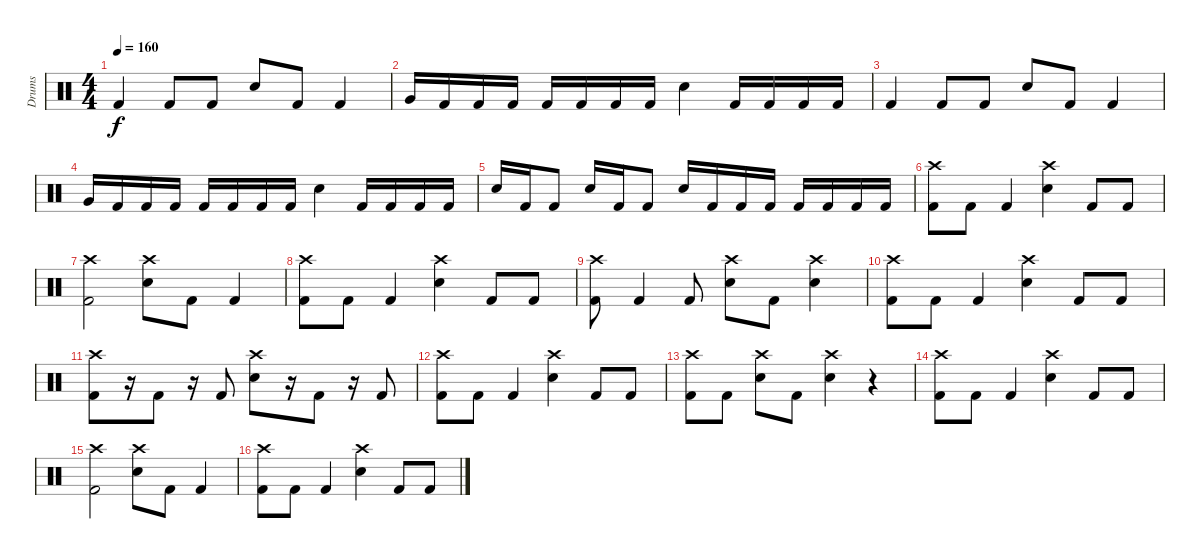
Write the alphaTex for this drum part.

\track ("Drums" "Drums") {instrument percussion}
\staff {score}
\articulation defaults
\ts (4 4)
\tempo 160
\clef neutral
\ks c "Kick (hit) 2".4{dy f} "Kick (hit) 2".8 "Kick (hit) 2".8 "Snare (hit) 2".8 "Kick (hit) 2".8 "Kick (hit) 2".4
|
"Very Low Tom (hit)".16 "Kick (hit) 2".16 "Kick (hit) 2".16 "Kick (hit) 2".16 "Kick (hit) 2".16 "Kick (hit) 2".16 "Kick (hit) 2".16 "Kick (hit) 2".16 "Snare (hit) 2".4 "Kick (hit) 2".16 "Kick (hit) 2".16 "Kick (hit) 2".16 "Kick (hit) 2".16 |
"Kick (hit) 2".4 "Kick (hit) 2".8 "Kick (hit) 2".8 "Snare (hit) 2".8 "Kick (hit) 2".8 "Kick (hit) 2".4 |
"Very Low Tom (hit)".16 "Kick (hit) 2".16 "Kick (hit) 2".16 "Kick (hit) 2".16 "Kick (hit) 2".16 "Kick (hit) 2".16 "Kick (hit) 2".16 "Kick (hit) 2".16 "Snare (hit) 2".4 "Kick (hit) 2".16 "Kick (hit) 2".16 "Kick (hit) 2".16 "Kick (hit) 2".16 |
"Snare (hit) 2".16 "Kick (hit) 2".16 "Kick (hit) 2".8 "Snare (hit) 2".16 "Kick (hit) 2".16 "Kick (hit) 2".8 "Snare (hit) 2".16 "Kick (hit) 2".16 "Kick (hit) 2".16 "Kick (hit) 2".16 "Kick (hit) 2".16 "Kick (hit) 2".16 "Kick (hit) 2".16 "Kick (hit) 2".16 |
("Crash high (hit)" "Kick (hit) 2").8 "Kick (hit) 2".8 "Kick (hit) 2".4 ("Crash high (hit)" "Snare (hit) 2").4 "Kick (hit) 2".8 "Kick (hit) 2".8 |
("Crash high (hit)" "Kick (hit) 2").2 ("Crash high (hit)" "Snare (hit) 2").8 "Kick (hit) 2".8 "Kick (hit) 2".4 |
("Crash high (hit)" "Kick (hit) 2").8 "Kick (hit) 2".8 "Kick (hit) 2".4 ("Crash high (hit)" "Snare (hit) 2").4 "Kick (hit) 2".8 "Kick (hit) 2".8 |
("Crash high (hit)" "Kick (hit) 2").8 "Kick (hit) 2".4 "Kick (hit) 2".8 ("Crash high (hit)" "Snare (hit) 2").8 "Kick (hit) 2".8 ("Crash high (hit)" "Snare (hit) 2").4 |
("Crash high (hit)" "Kick (hit) 2").8 "Kick (hit) 2".8 "Kick (hit) 2".4 ("Crash high (hit)" "Snare (hit) 2").4 "Kick (hit) 2".8 "Kick (hit) 2".8 |
("Crash high (hit)" "Kick (hit) 2").8 r.16 "Kick (hit) 2".8 r.16 "Kick (hit) 2".8 ("Crash high (hit)" "Snare (hit) 2").8 r.16 "Kick (hit) 2".8 r.16 "Kick (hit) 2".8 |
("Crash high (hit)" "Kick (hit) 2").8 "Kick (hit) 2".8 "Kick (hit) 2".4 ("Crash high (hit)" "Snare (hit) 2").4 "Kick (hit) 2".8 "Kick (hit) 2".8 |
("Crash high (hit)" "Kick (hit) 2").8 "Kick (hit) 2".8 ("Crash high (hit)" "Snare (hit) 2").8 "Kick (hit) 2".8 ("Crash high (hit)" "Snare (hit) 2").4 r.4 |
("Crash high (hit)" "Kick (hit) 2").8 "Kick (hit) 2".8 "Kick (hit) 2".4 ("Crash high (hit)" "Snare (hit) 2").4 "Kick (hit) 2".8 "Kick (hit) 2".8 |
("Crash high (hit)" "Kick (hit) 2").2 ("Crash high (hit)" "Snare (hit) 2").8 "Kick (hit) 2".8 "Kick (hit) 2".4 |
("Crash high (hit)" "Kick (hit) 2").8 "Kick (hit) 2".8 "Kick (hit) 2".4 ("Crash high (hit)" "Snare (hit) 2").4 "Kick (hit) 2".8 "Kick (hit) 2".8
